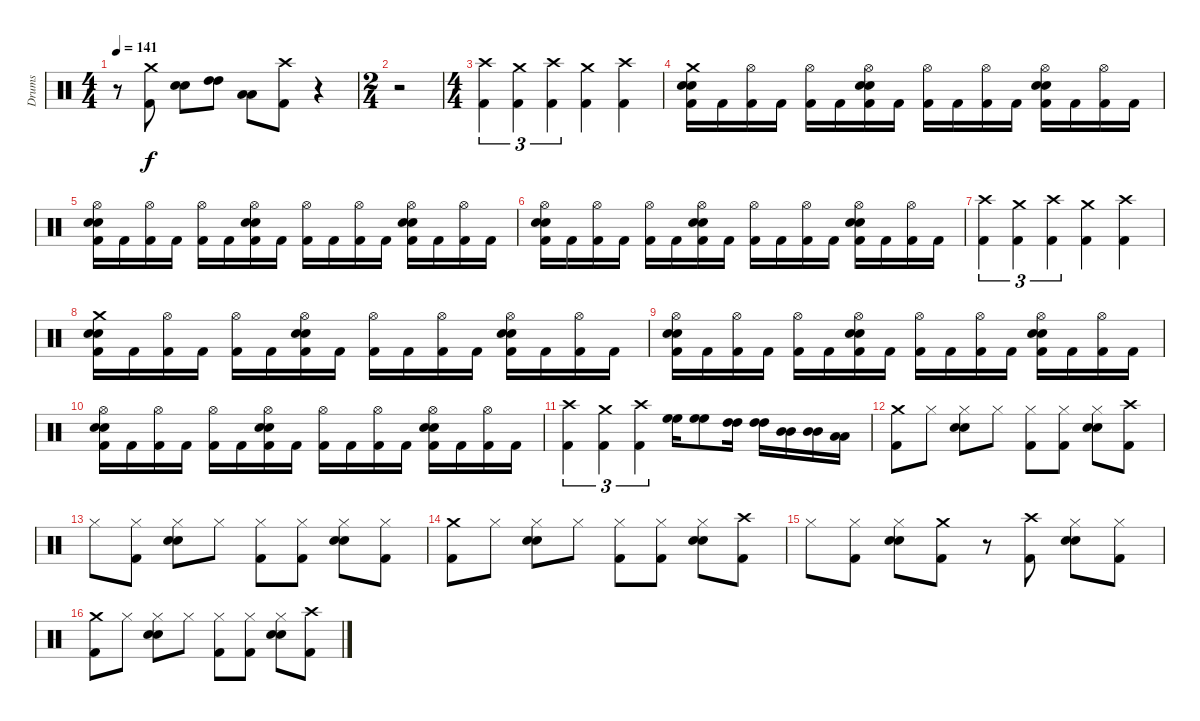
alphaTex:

\track ("Drums " "Drums ") {instrument percussion}
\staff {score}
\articulation defaults
\ts (4 4)
\tempo 141
\clef neutral
\ks c
r.8{dy f} ("Crash medium (hit)" "Kick (hit) 2").8 ("Snare (hit) 2" "Electric Snare (hit)").8 ("High Tom (hit)" "High Tom (hit)").8 ("Low Tom (hit)" "Low Tom (hit)").8 ("Crash high (hit)" "Kick (hit) 2").8 r.4 |
\ts (2 4)
r.2 |
\ts (4 4)
("Crash high (hit)" "Kick (hit) 2").4{tu (3 2)} ("Crash medium (hit)" "Kick (hit) 2").4{tu (3 2)} ("Crash high (hit)" "Kick (hit) 2").4{tu (3 2)} ("Crash medium (hit)" "Kick (hit) 2").4 ("Crash high (hit)" "Kick (hit) 2").4 |
("Crash medium (hit)" "Snare (hit) 2" "Electric Snare (hit)" "Kick (hit) 2").16 "Kick (hit) 2".16 ("Hi-Hat (open)" "Kick (hit) 2").16 "Kick (hit) 2".16 ("Hi-Hat (open)" "Kick (hit) 2").16 "Kick (hit) 2".16 ("Hi-Hat (open)" "Snare (hit) 2" "Electric Snare (hit)" "Kick (hit) 2").16 "Kick (hit) 2".16 ("Hi-Hat (open)" "Kick (hit) 2").16 "Kick (hit) 2".16 ("Hi-Hat (open)" "Kick (hit) 2").16 "Kick (hit) 2".16 ("Hi-Hat (open)" "Snare (hit) 2" "Electric Snare (hit)" "Kick (hit) 2").16 "Kick (hit) 2".16 ("Hi-Hat (open)" "Kick (hit) 2").16 "Kick (hit) 2".16 |
("Hi-Hat (open)" "Snare (hit) 2" "Electric Snare (hit)" "Kick (hit) 2").16 "Kick (hit) 2".16 ("Hi-Hat (open)" "Kick (hit) 2").16 "Kick (hit) 2".16 ("Hi-Hat (open)" "Kick (hit) 2").16 "Kick (hit) 2".16 ("Hi-Hat (open)" "Snare (hit) 2" "Electric Snare (hit)" "Kick (hit) 2").16 "Kick (hit) 2".16 ("Hi-Hat (open)" "Kick (hit) 2").16 "Kick (hit) 2".16 ("Hi-Hat (open)" "Kick (hit) 2").16 "Kick (hit) 2".16 ("Hi-Hat (open)" "Snare (hit) 2" "Electric Snare (hit)" "Kick (hit) 2").16 "Kick (hit) 2".16 ("Hi-Hat (open)" "Kick (hit) 2").16 "Kick (hit) 2".16 |
("Hi-Hat (open)" "Snare (hit) 2" "Electric Snare (hit)" "Kick (hit) 2").16 "Kick (hit) 2".16 ("Hi-Hat (open)" "Kick (hit) 2").16 "Kick (hit) 2".16 ("Hi-Hat (open)" "Kick (hit) 2").16 "Kick (hit) 2".16 ("Hi-Hat (open)" "Snare (hit) 2" "Electric Snare (hit)" "Kick (hit) 2").16 "Kick (hit) 2".16 ("Hi-Hat (open)" "Kick (hit) 2").16 "Kick (hit) 2".16 ("Hi-Hat (open)" "Kick (hit) 2").16 "Kick (hit) 2".16 ("Hi-Hat (open)" "Snare (hit) 2" "Electric Snare (hit)" "Kick (hit) 2").16 "Kick (hit) 2".16 ("Hi-Hat (open)" "Kick (hit) 2").16 "Kick (hit) 2".16 |
("Crash high (hit)" "Kick (hit) 2").4{tu (3 2)} ("Crash medium (hit)" "Kick (hit) 2").4{tu (3 2)} ("Crash high (hit)" "Kick (hit) 2").4{tu (3 2)} ("Crash medium (hit)" "Kick (hit) 2").4 ("Crash high (hit)" "Kick (hit) 2").4 |
("Crash medium (hit)" "Snare (hit) 2" "Electric Snare (hit)" "Kick (hit) 2").16 "Kick (hit) 2".16 ("Hi-Hat (open)" "Kick (hit) 2").16 "Kick (hit) 2".16 ("Hi-Hat (open)" "Kick (hit) 2").16 "Kick (hit) 2".16 ("Hi-Hat (open)" "Snare (hit) 2" "Electric Snare (hit)" "Kick (hit) 2").16 "Kick (hit) 2".16 ("Hi-Hat (open)" "Kick (hit) 2").16 "Kick (hit) 2".16 ("Hi-Hat (open)" "Kick (hit) 2").16 "Kick (hit) 2".16 ("Hi-Hat (open)" "Snare (hit) 2" "Electric Snare (hit)" "Kick (hit) 2").16 "Kick (hit) 2".16 ("Hi-Hat (open)" "Kick (hit) 2").16 "Kick (hit) 2".16 |
("Hi-Hat (open)" "Snare (hit) 2" "Electric Snare (hit)" "Kick (hit) 2").16 "Kick (hit) 2".16 ("Hi-Hat (open)" "Kick (hit) 2").16 "Kick (hit) 2".16 ("Hi-Hat (open)" "Kick (hit) 2").16 "Kick (hit) 2".16 ("Hi-Hat (open)" "Snare (hit) 2" "Electric Snare (hit)" "Kick (hit) 2").16 "Kick (hit) 2".16 ("Hi-Hat (open)" "Kick (hit) 2").16 "Kick (hit) 2".16 ("Hi-Hat (open)" "Kick (hit) 2").16 "Kick (hit) 2".16 ("Hi-Hat (open)" "Snare (hit) 2" "Electric Snare (hit)" "Kick (hit) 2").16 "Kick (hit) 2".16 ("Hi-Hat (open)" "Kick (hit) 2").16 "Kick (hit) 2".16 |
("Hi-Hat (open)" "Snare (hit) 2" "Electric Snare (hit)" "Kick (hit) 2").16 "Kick (hit) 2".16 ("Hi-Hat (open)" "Kick (hit) 2").16 "Kick (hit) 2".16 ("Hi-Hat (open)" "Kick (hit) 2").16 "Kick (hit) 2".16 ("Hi-Hat (open)" "Snare (hit) 2" "Electric Snare (hit)" "Kick (hit) 2").16 "Kick (hit) 2".16 ("Hi-Hat (open)" "Kick (hit) 2").16 "Kick (hit) 2".16 ("Hi-Hat (open)" "Kick (hit) 2").16 "Kick (hit) 2".16 ("Hi-Hat (open)" "Snare (hit) 2" "Electric Snare (hit)" "Kick (hit) 2").16 "Kick (hit) 2".16 ("Hi-Hat (open)" "Kick (hit) 2").16 "Kick (hit) 2".16 |
("Crash high (hit)" "Kick (hit) 2").4{tu (3 2)} ("Crash medium (hit)" "Kick (hit) 2").4{tu (3 2)} ("Crash high (hit)" "Kick (hit) 2").4{tu (3 2)} ("High Floor Tom (hit)" "High Floor Tom (hit)").16 ("High Floor Tom (hit)" "High Floor Tom (hit)").8 ("High Tom (hit)" "High Tom (hit)").16 ("High Tom (hit)" "High Tom (hit)").16 ("Mid Tom (hit)" "Mid Tom (hit)").16 ("Mid Tom (hit)" "Mid Tom (hit)").16 ("Low Tom (hit)" "Low Tom (hit)").16 |
("Crash medium (hit)" "Kick (hit) 2").8 "Hi-Hat (closed)".8 ("Hi-Hat (closed)" "Snare (hit) 2" "Electric Snare (hit)").8 "Hi-Hat (closed)".8 ("Hi-Hat (closed)" "Kick (hit) 2").8 ("Hi-Hat (closed)" "Kick (hit) 2").8 ("Hi-Hat (closed)" "Snare (hit) 2" "Electric Snare (hit)").8 ("Crash high (hit)" "Kick (hit) 2").8 |
"Hi-Hat (closed)".8 ("Hi-Hat (closed)" "Kick (hit) 2").8 ("Hi-Hat (closed)" "Snare (hit) 2" "Electric Snare (hit)").8 "Hi-Hat (closed)".8 ("Hi-Hat (closed)" "Kick (hit) 2").8 ("Hi-Hat (closed)" "Kick (hit) 2").8 ("Hi-Hat (closed)" "Snare (hit) 2" "Electric Snare (hit)").8 ("Hi-Hat (closed)" "Kick (hit) 2").8 |
("Crash medium (hit)" "Kick (hit) 2").8 "Hi-Hat (closed)".8 ("Hi-Hat (closed)" "Snare (hit) 2" "Electric Snare (hit)").8 "Hi-Hat (closed)".8 ("Hi-Hat (closed)" "Kick (hit) 2").8 ("Hi-Hat (closed)" "Kick (hit) 2").8 ("Hi-Hat (closed)" "Snare (hit) 2" "Electric Snare (hit)").8 ("Crash high (hit)" "Kick (hit) 2").8 |
"Hi-Hat (closed)".8 ("Hi-Hat (closed)" "Kick (hit) 2").8 ("Hi-Hat (closed)" "Snare (hit) 2" "Electric Snare (hit)").8 ("Crash medium (hit)" "Kick (hit) 2").8 r.8 ("Crash high (hit)" "Kick (hit) 2").8 ("Hi-Hat (closed)" "Snare (hit) 2" "Electric Snare (hit)").8 ("Hi-Hat (closed)" "Kick (hit) 2").8 |
("Crash medium (hit)" "Kick (hit) 2").8 "Hi-Hat (closed)".8 ("Hi-Hat (closed)" "Snare (hit) 2" "Electric Snare (hit)").8 "Hi-Hat (closed)".8 ("Hi-Hat (closed)" "Kick (hit) 2").8 ("Hi-Hat (closed)" "Kick (hit) 2").8 ("Hi-Hat (closed)" "Snare (hit) 2" "Electric Snare (hit)").8 ("Crash high (hit)" "Kick (hit) 2").8
